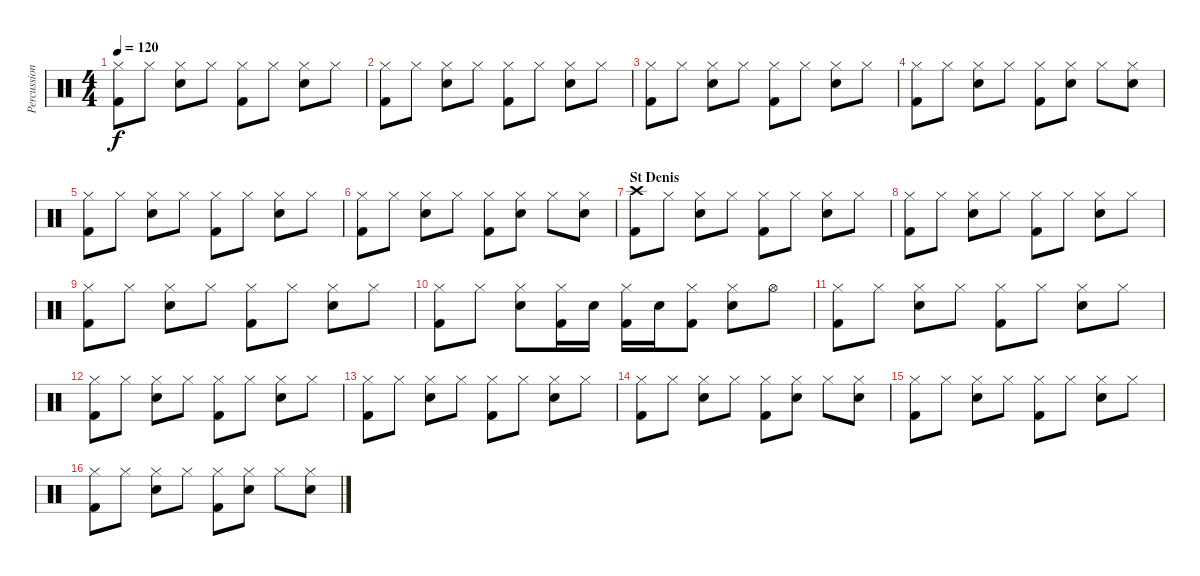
\track ("Percussions" "Percussion") {instrument percussion}
\staff {score}
\articulation defaults
\ts (4 4)
\tempo 120
\clef neutral
\ks c
("Hi-Hat (closed)" "Kick (hit) 2").8{dy f} "Hi-Hat (closed)".8 ("Hi-Hat (closed)" "Electric Snare (hit)").8 "Hi-Hat (closed)".8 ("Hi-Hat (closed)" "Kick (hit) 2").8 "Hi-Hat (closed)".8 ("Hi-Hat (closed)" "Electric Snare (hit)").8 "Hi-Hat (closed)".8 |
("Hi-Hat (closed)" "Kick (hit) 2").8 "Hi-Hat (closed)".8 ("Hi-Hat (closed)" "Electric Snare (hit)").8 "Hi-Hat (closed)".8 ("Hi-Hat (closed)" "Kick (hit) 2").8 "Hi-Hat (closed)".8 ("Hi-Hat (closed)" "Electric Snare (hit)").8 "Hi-Hat (closed)".8 |
("Hi-Hat (closed)" "Kick (hit) 2").8 "Hi-Hat (closed)".8 ("Hi-Hat (closed)" "Electric Snare (hit)").8 "Hi-Hat (closed)".8 ("Hi-Hat (closed)" "Kick (hit) 2").8 "Hi-Hat (closed)".8 ("Hi-Hat (closed)" "Electric Snare (hit)").8 "Hi-Hat (closed)".8 |
("Hi-Hat (closed)" "Kick (hit) 2").8 "Hi-Hat (closed)".8 ("Hi-Hat (closed)" "Electric Snare (hit)").8 "Hi-Hat (closed)".8 ("Hi-Hat (closed)" "Kick (hit) 2").8 ("Hi-Hat (closed)" "Electric Snare (hit)").8 "Hi-Hat (closed)".8 ("Hi-Hat (closed)" "Electric Snare (hit)").8 |
("Hi-Hat (closed)" "Kick (hit) 2").8 "Hi-Hat (closed)".8 ("Hi-Hat (closed)" "Electric Snare (hit)").8 "Hi-Hat (closed)".8 ("Hi-Hat (closed)" "Kick (hit) 2").8 "Hi-Hat (closed)".8 ("Hi-Hat (closed)" "Electric Snare (hit)").8 "Hi-Hat (closed)".8 |
("Hi-Hat (closed)" "Kick (hit) 2").8 "Hi-Hat (closed)".8 ("Hi-Hat (closed)" "Electric Snare (hit)").8 "Hi-Hat (closed)".8 ("Hi-Hat (closed)" "Kick (hit) 2").8 ("Hi-Hat (closed)" "Electric Snare (hit)").8 "Hi-Hat (closed)".8 ("Hi-Hat (closed)" "Electric Snare (hit)").8 |
\section ("" "St Denis")
("Crash high (hit)" "Kick (hit) 2").8 "Hi-Hat (closed)".8 ("Hi-Hat (closed)" "Electric Snare (hit)").8 "Hi-Hat (closed)".8 ("Hi-Hat (closed)" "Kick (hit) 2").8 "Hi-Hat (closed)".8 ("Hi-Hat (closed)" "Electric Snare (hit)").8 "Hi-Hat (closed)".8 |
("Hi-Hat (closed)" "Kick (hit) 2").8 "Hi-Hat (closed)".8 ("Hi-Hat (closed)" "Electric Snare (hit)").8 "Hi-Hat (closed)".8 ("Hi-Hat (closed)" "Kick (hit) 2").8 "Hi-Hat (closed)".8 ("Hi-Hat (closed)" "Electric Snare (hit)").8 "Hi-Hat (closed)".8 |
("Hi-Hat (closed)" "Kick (hit) 2").8 "Hi-Hat (closed)".8 ("Hi-Hat (closed)" "Electric Snare (hit)").8 "Hi-Hat (closed)".8 ("Hi-Hat (closed)" "Kick (hit) 2").8 "Hi-Hat (closed)".8 ("Hi-Hat (closed)" "Electric Snare (hit)").8 "Hi-Hat (closed)".8 |
("Hi-Hat (closed)" "Kick (hit) 2").8 "Hi-Hat (closed)".8 ("Hi-Hat (closed)" "Electric Snare (hit)").8 ("Hi-Hat (closed)" "Kick (hit) 2").16 "Electric Snare (hit)".16 ("Hi-Hat (closed)" "Kick (hit) 2").16 "Electric Snare (hit)".16 ("Hi-Hat (closed)" "Kick (hit) 2").8 ("Hi-Hat (closed)" "Electric Snare (hit)").8 "Hi-Hat (open)".8 |
("Hi-Hat (closed)" "Kick (hit) 2").8 "Hi-Hat (closed)".8 ("Hi-Hat (closed)" "Electric Snare (hit)").8 "Hi-Hat (closed)".8 ("Hi-Hat (closed)" "Kick (hit) 2").8 "Hi-Hat (closed)".8 ("Hi-Hat (closed)" "Electric Snare (hit)").8 "Hi-Hat (closed)".8 |
("Hi-Hat (closed)" "Kick (hit) 2").8 "Hi-Hat (closed)".8 ("Hi-Hat (closed)" "Electric Snare (hit)").8 "Hi-Hat (closed)".8 ("Hi-Hat (closed)" "Kick (hit) 2").8 "Hi-Hat (closed)".8 ("Hi-Hat (closed)" "Electric Snare (hit)").8 "Hi-Hat (closed)".8 |
("Hi-Hat (closed)" "Kick (hit) 2").8 "Hi-Hat (closed)".8 ("Hi-Hat (closed)" "Electric Snare (hit)").8 "Hi-Hat (closed)".8 ("Hi-Hat (closed)" "Kick (hit) 2").8 "Hi-Hat (closed)".8 ("Hi-Hat (closed)" "Electric Snare (hit)").8 "Hi-Hat (closed)".8 |
("Hi-Hat (closed)" "Kick (hit) 2").8 "Hi-Hat (closed)".8 ("Hi-Hat (closed)" "Electric Snare (hit)").8 "Hi-Hat (closed)".8 ("Hi-Hat (closed)" "Kick (hit) 2").8 ("Hi-Hat (closed)" "Electric Snare (hit)").8 "Hi-Hat (closed)".8 ("Hi-Hat (closed)" "Electric Snare (hit)").8 |
("Hi-Hat (closed)" "Kick (hit) 2").8 "Hi-Hat (closed)".8 ("Hi-Hat (closed)" "Electric Snare (hit)").8 "Hi-Hat (closed)".8 ("Hi-Hat (closed)" "Kick (hit) 2").8 "Hi-Hat (closed)".8 ("Hi-Hat (closed)" "Electric Snare (hit)").8 "Hi-Hat (closed)".8 |
("Hi-Hat (closed)" "Kick (hit) 2").8 "Hi-Hat (closed)".8 ("Hi-Hat (closed)" "Electric Snare (hit)").8 "Hi-Hat (closed)".8 ("Hi-Hat (closed)" "Kick (hit) 2").8 ("Hi-Hat (closed)" "Electric Snare (hit)").8 "Hi-Hat (closed)".8 ("Hi-Hat (closed)" "Electric Snare (hit)").8
